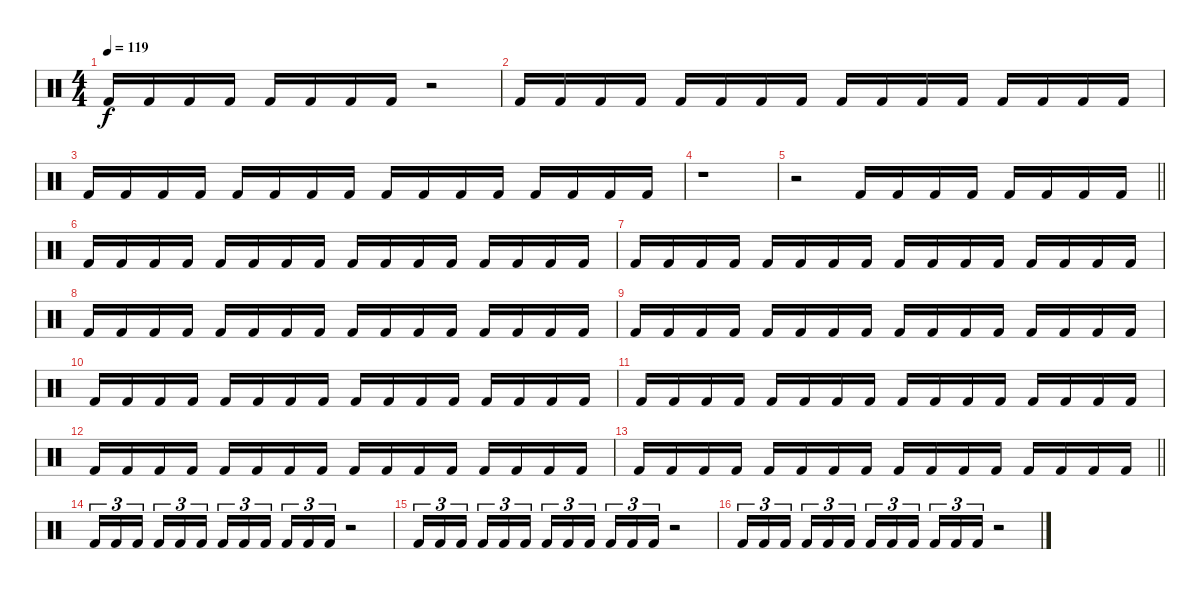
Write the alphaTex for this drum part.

\track "" {instrument percussion}
\staff {score}
\articulation defaults
\ts (4 4)
\tempo 119
\clef neutral
\ks c "Kick (hit) 2".16{dy f} "Kick (hit) 2".16 "Kick (hit) 2".16 "Kick (hit) 2".16 "Kick (hit) 2".16 "Kick (hit) 2".16 "Kick (hit) 2".16 "Kick (hit) 2".16
r.2 |
"Kick (hit) 2".16 "Kick (hit) 2".16 "Kick (hit) 2".16 "Kick (hit) 2".16 "Kick (hit) 2".16 "Kick (hit) 2".16 "Kick (hit) 2".16 "Kick (hit) 2".16 "Kick (hit) 2".16 "Kick (hit) 2".16 "Kick (hit) 2".16 "Kick (hit) 2".16 "Kick (hit) 2".16 "Kick (hit) 2".16 "Kick (hit) 2".16 "Kick (hit) 2".16 |
"Kick (hit) 2".16 "Kick (hit) 2".16 "Kick (hit) 2".16 "Kick (hit) 2".16 "Kick (hit) 2".16 "Kick (hit) 2".16 "Kick (hit) 2".16 "Kick (hit) 2".16 "Kick (hit) 2".16 "Kick (hit) 2".16 "Kick (hit) 2".16 "Kick (hit) 2".16 "Kick (hit) 2".16 "Kick (hit) 2".16 "Kick (hit) 2".16 "Kick (hit) 2".16 |
r.1 |
\barLineRight lightlight
r.2 "Kick (hit) 2".16 "Kick (hit) 2".16 "Kick (hit) 2".16 "Kick (hit) 2".16 "Kick (hit) 2".16 "Kick (hit) 2".16 "Kick (hit) 2".16 "Kick (hit) 2".16 |
"Kick (hit) 2".16 "Kick (hit) 2".16 "Kick (hit) 2".16 "Kick (hit) 2".16 "Kick (hit) 2".16 "Kick (hit) 2".16 "Kick (hit) 2".16 "Kick (hit) 2".16 "Kick (hit) 2".16 "Kick (hit) 2".16 "Kick (hit) 2".16 "Kick (hit) 2".16 "Kick (hit) 2".16 "Kick (hit) 2".16 "Kick (hit) 2".16 "Kick (hit) 2".16 |
"Kick (hit) 2".16 "Kick (hit) 2".16 "Kick (hit) 2".16 "Kick (hit) 2".16 "Kick (hit) 2".16 "Kick (hit) 2".16 "Kick (hit) 2".16 "Kick (hit) 2".16 "Kick (hit) 2".16 "Kick (hit) 2".16 "Kick (hit) 2".16 "Kick (hit) 2".16 "Kick (hit) 2".16 "Kick (hit) 2".16 "Kick (hit) 2".16 "Kick (hit) 2".16 |
"Kick (hit) 2".16 "Kick (hit) 2".16 "Kick (hit) 2".16 "Kick (hit) 2".16 "Kick (hit) 2".16 "Kick (hit) 2".16 "Kick (hit) 2".16 "Kick (hit) 2".16 "Kick (hit) 2".16 "Kick (hit) 2".16 "Kick (hit) 2".16 "Kick (hit) 2".16 "Kick (hit) 2".16 "Kick (hit) 2".16 "Kick (hit) 2".16 "Kick (hit) 2".16 |
"Kick (hit) 2".16 "Kick (hit) 2".16 "Kick (hit) 2".16 "Kick (hit) 2".16 "Kick (hit) 2".16 "Kick (hit) 2".16 "Kick (hit) 2".16 "Kick (hit) 2".16 "Kick (hit) 2".16 "Kick (hit) 2".16 "Kick (hit) 2".16 "Kick (hit) 2".16 "Kick (hit) 2".16 "Kick (hit) 2".16 "Kick (hit) 2".16 "Kick (hit) 2".16 |
"Kick (hit) 2".16 "Kick (hit) 2".16 "Kick (hit) 2".16 "Kick (hit) 2".16 "Kick (hit) 2".16 "Kick (hit) 2".16 "Kick (hit) 2".16 "Kick (hit) 2".16 "Kick (hit) 2".16 "Kick (hit) 2".16 "Kick (hit) 2".16 "Kick (hit) 2".16 "Kick (hit) 2".16 "Kick (hit) 2".16 "Kick (hit) 2".16 "Kick (hit) 2".16 |
"Kick (hit) 2".16 "Kick (hit) 2".16 "Kick (hit) 2".16 "Kick (hit) 2".16 "Kick (hit) 2".16 "Kick (hit) 2".16 "Kick (hit) 2".16 "Kick (hit) 2".16 "Kick (hit) 2".16 "Kick (hit) 2".16 "Kick (hit) 2".16 "Kick (hit) 2".16 "Kick (hit) 2".16 "Kick (hit) 2".16 "Kick (hit) 2".16 "Kick (hit) 2".16 |
"Kick (hit) 2".16 "Kick (hit) 2".16 "Kick (hit) 2".16 "Kick (hit) 2".16 "Kick (hit) 2".16 "Kick (hit) 2".16 "Kick (hit) 2".16 "Kick (hit) 2".16 "Kick (hit) 2".16 "Kick (hit) 2".16 "Kick (hit) 2".16 "Kick (hit) 2".16 "Kick (hit) 2".16 "Kick (hit) 2".16 "Kick (hit) 2".16 "Kick (hit) 2".16 |
\barLineRight lightlight "Kick (hit) 2".16 "Kick (hit) 2".16 "Kick (hit) 2".16 "Kick (hit) 2".16 "Kick (hit) 2".16 "Kick (hit) 2".16 "Kick (hit) 2".16 "Kick (hit) 2".16 "Kick (hit) 2".16 "Kick (hit) 2".16 "Kick (hit) 2".16 "Kick (hit) 2".16 "Kick (hit) 2".16 "Kick (hit) 2".16 "Kick (hit) 2".16 "Kick (hit) 2".16
|
"Kick (hit) 2".16{tu (3 2)} "Kick (hit) 2".16{tu (3 2)} "Kick (hit) 2".16{tu (3 2) beam splitsecondary} "Kick (hit) 2".16{tu (3 2)} "Kick (hit) 2".16{tu (3 2)} "Kick (hit) 2".16{tu (3 2)} "Kick (hit) 2".16{tu (3 2)} "Kick (hit) 2".16{tu (3 2)} "Kick (hit) 2".16{tu (3 2) beam splitsecondary} "Kick (hit) 2".16{tu (3 2)} "Kick (hit) 2".16{tu (3 2)} "Kick (hit) 2".16{tu (3 2)} r.2 |
"Kick (hit) 2".16{tu (3 2)} "Kick (hit) 2".16{tu (3 2)} "Kick (hit) 2".16{tu (3 2) beam splitsecondary} "Kick (hit) 2".16{tu (3 2)} "Kick (hit) 2".16{tu (3 2)} "Kick (hit) 2".16{tu (3 2)} "Kick (hit) 2".16{tu (3 2)} "Kick (hit) 2".16{tu (3 2)} "Kick (hit) 2".16{tu (3 2) beam splitsecondary} "Kick (hit) 2".16{tu (3 2)} "Kick (hit) 2".16{tu (3 2)} "Kick (hit) 2".16{tu (3 2)} r.2 |
"Kick (hit) 2".16{tu (3 2)} "Kick (hit) 2".16{tu (3 2)} "Kick (hit) 2".16{tu (3 2) beam splitsecondary} "Kick (hit) 2".16{tu (3 2)} "Kick (hit) 2".16{tu (3 2)} "Kick (hit) 2".16{tu (3 2)} "Kick (hit) 2".16{tu (3 2)} "Kick (hit) 2".16{tu (3 2)} "Kick (hit) 2".16{tu (3 2) beam splitsecondary} "Kick (hit) 2".16{tu (3 2)} "Kick (hit) 2".16{tu (3 2)} "Kick (hit) 2".16{tu (3 2)} r.2
